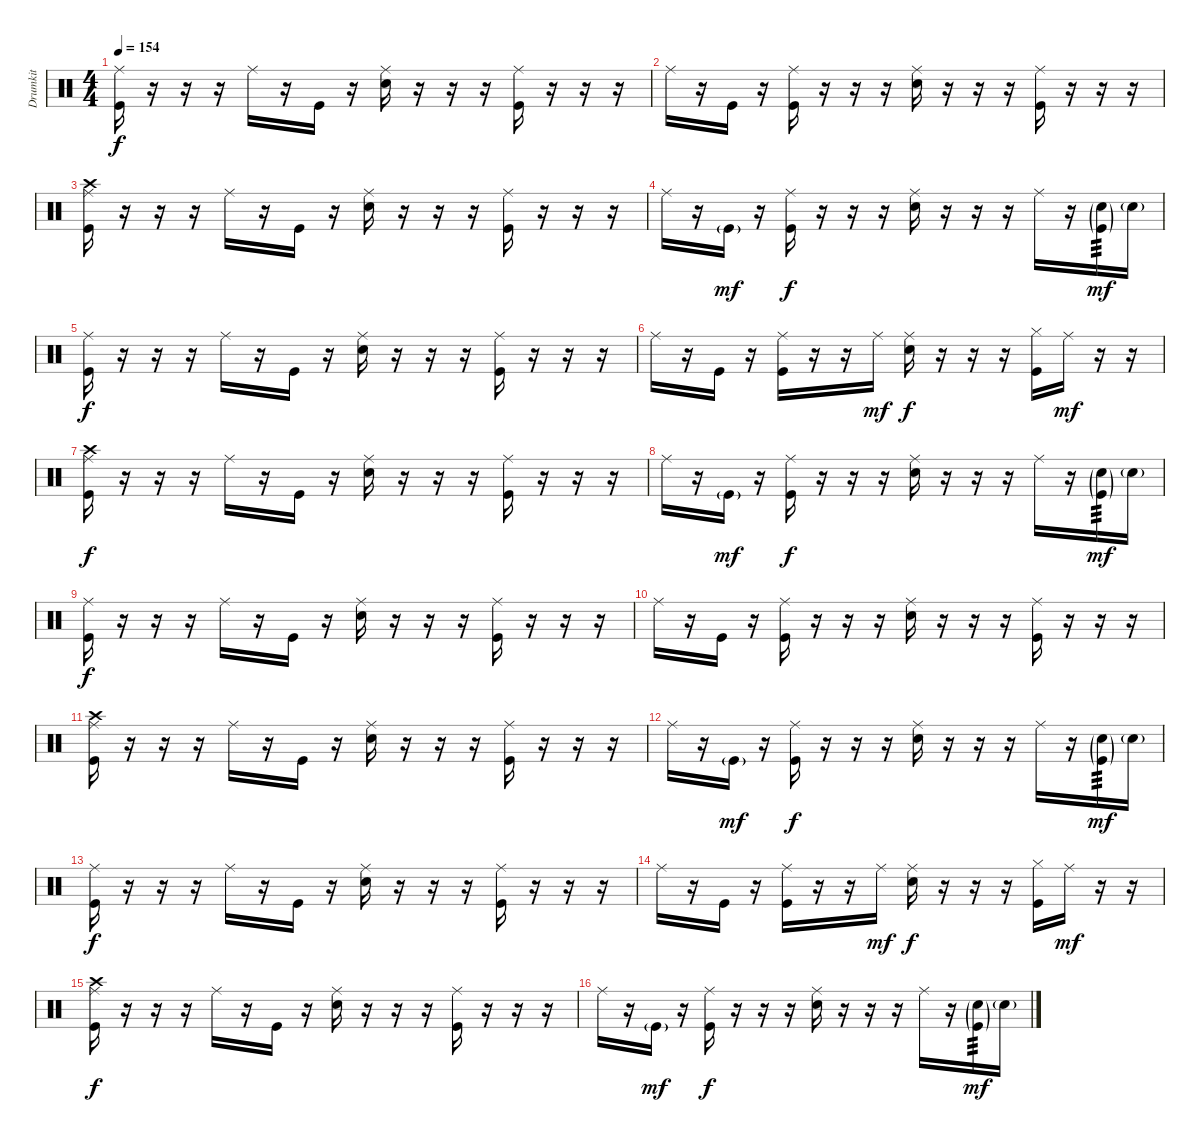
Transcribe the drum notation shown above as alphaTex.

\track ("Drumkit" "Drumkit") {instrument percussion}
\staff {score}
\articulation defaults
\ts (4 4)
\tempo 154
\clef neutral
\ks c
("Ride (middle)" "Kick (hit)").16{dy f} r.16 r.16 r.16 "Ride (middle)".16 r.16 "Kick (hit)".16 r.16 ("Ride (middle)" "Snare (hit) 2").16 r.16 r.16 r.16 ("Ride (middle)" "Kick (hit)").16 r.16 r.16 r.16 |
"Ride (middle)".16 r.16 "Kick (hit)".16 r.16 ("Ride (middle)" "Kick (hit)").16 r.16 r.16 r.16 ("Ride (middle)" "Snare (hit) 2").16 r.16 r.16 r.16 ("Ride (middle)" "Kick (hit)").16 r.16 r.16 r.16 |
("Crash high (hit)" "Ride (middle)" "Kick (hit)").16 r.16 r.16 r.16 "Ride (middle)".16 r.16 "Kick (hit)".16 r.16 ("Ride (middle)" "Snare (hit) 2").16 r.16 r.16 r.16 ("Ride (middle)" "Kick (hit)").16 r.16 r.16 r.16 |
"Ride (middle)".16 r.16 "Kick (hit)"{g}.16{dy mf} r.16 ("Ride (middle)" "Kick (hit)").16{dy f} r.16 r.16 r.16 ("Ride (middle)" "Snare (hit) 2").16 r.16 r.16 r.16 "Ride (middle)".16 r.16 ("Snare (hit) 2"{g} "Kick (hit)"{g}).16{tp 3 dy mf} "Snare (hit) 2"{g}.16 |
("Ride (middle)" "Kick (hit)").16{dy f} r.16 r.16 r.16 "Ride (middle)".16 r.16 "Kick (hit)".16 r.16 ("Ride (middle)" "Snare (hit) 2").16 r.16 r.16 r.16 ("Ride (middle)" "Kick (hit)").16 r.16 r.16 r.16 |
"Ride (middle)".16 r.16 "Kick (hit)".16 r.16 ("Ride (middle)" "Kick (hit)").16 r.16 r.16 "Ride (middle)".16{dy mf} ("Ride (middle)" "Snare (hit) 2").16{dy f} r.16 r.16 r.16 ("Hi-Hat (closed)" "Kick (hit)").16 "Ride (middle)".16{dy mf} r.16 r.16 |
("Crash high (hit)" "Ride (middle)" "Kick (hit)").16{dy f} r.16 r.16 r.16 "Ride (middle)".16 r.16 "Kick (hit)".16 r.16 ("Ride (middle)" "Snare (hit) 2").16 r.16 r.16 r.16 ("Ride (middle)" "Kick (hit)").16 r.16 r.16 r.16 |
"Ride (middle)".16 r.16 "Kick (hit)"{g}.16{dy mf} r.16 ("Ride (middle)" "Kick (hit)").16{dy f} r.16 r.16 r.16 ("Ride (middle)" "Snare (hit) 2").16 r.16 r.16 r.16 "Ride (middle)".16 r.16 ("Snare (hit) 2"{g} "Kick (hit)"{g}).16{tp 3 dy mf} "Snare (hit) 2"{g}.16 |
("Ride (middle)" "Kick (hit)").16{dy f} r.16 r.16 r.16 "Ride (middle)".16 r.16 "Kick (hit)".16 r.16 ("Ride (middle)" "Snare (hit) 2").16 r.16 r.16 r.16 ("Ride (middle)" "Kick (hit)").16 r.16 r.16 r.16 |
"Ride (middle)".16 r.16 "Kick (hit)".16 r.16 ("Ride (middle)" "Kick (hit)").16 r.16 r.16 r.16 ("Ride (middle)" "Snare (hit) 2").16 r.16 r.16 r.16 ("Ride (middle)" "Kick (hit)").16 r.16 r.16 r.16 |
("Crash high (hit)" "Ride (middle)" "Kick (hit)").16 r.16 r.16 r.16 "Ride (middle)".16 r.16 "Kick (hit)".16 r.16 ("Ride (middle)" "Snare (hit) 2").16 r.16 r.16 r.16 ("Ride (middle)" "Kick (hit)").16 r.16 r.16 r.16 |
"Ride (middle)".16 r.16 "Kick (hit)"{g}.16{dy mf} r.16 ("Ride (middle)" "Kick (hit)").16{dy f} r.16 r.16 r.16 ("Ride (middle)" "Snare (hit) 2").16 r.16 r.16 r.16 "Ride (middle)".16 r.16 ("Snare (hit) 2"{g} "Kick (hit)"{g}).16{tp 3 dy mf} "Snare (hit) 2"{g}.16 |
("Ride (middle)" "Kick (hit)").16{dy f} r.16 r.16 r.16 "Ride (middle)".16 r.16 "Kick (hit)".16 r.16 ("Ride (middle)" "Snare (hit) 2").16 r.16 r.16 r.16 ("Ride (middle)" "Kick (hit)").16 r.16 r.16 r.16 |
"Ride (middle)".16 r.16 "Kick (hit)".16 r.16 ("Ride (middle)" "Kick (hit)").16 r.16 r.16 "Ride (middle)".16{dy mf} ("Ride (middle)" "Snare (hit) 2").16{dy f} r.16 r.16 r.16 ("Hi-Hat (closed)" "Kick (hit)").16 "Ride (middle)".16{dy mf} r.16 r.16 |
("Crash high (hit)" "Ride (middle)" "Kick (hit)").16{dy f} r.16 r.16 r.16 "Ride (middle)".16 r.16 "Kick (hit)".16 r.16 ("Ride (middle)" "Snare (hit) 2").16 r.16 r.16 r.16 ("Ride (middle)" "Kick (hit)").16 r.16 r.16 r.16 |
"Ride (middle)".16 r.16 "Kick (hit)"{g}.16{dy mf} r.16 ("Ride (middle)" "Kick (hit)").16{dy f} r.16 r.16 r.16 ("Ride (middle)" "Snare (hit) 2").16 r.16 r.16 r.16 "Ride (middle)".16 r.16 ("Snare (hit) 2"{g} "Kick (hit)"{g}).16{tp 3 dy mf} "Snare (hit) 2"{g}.16
